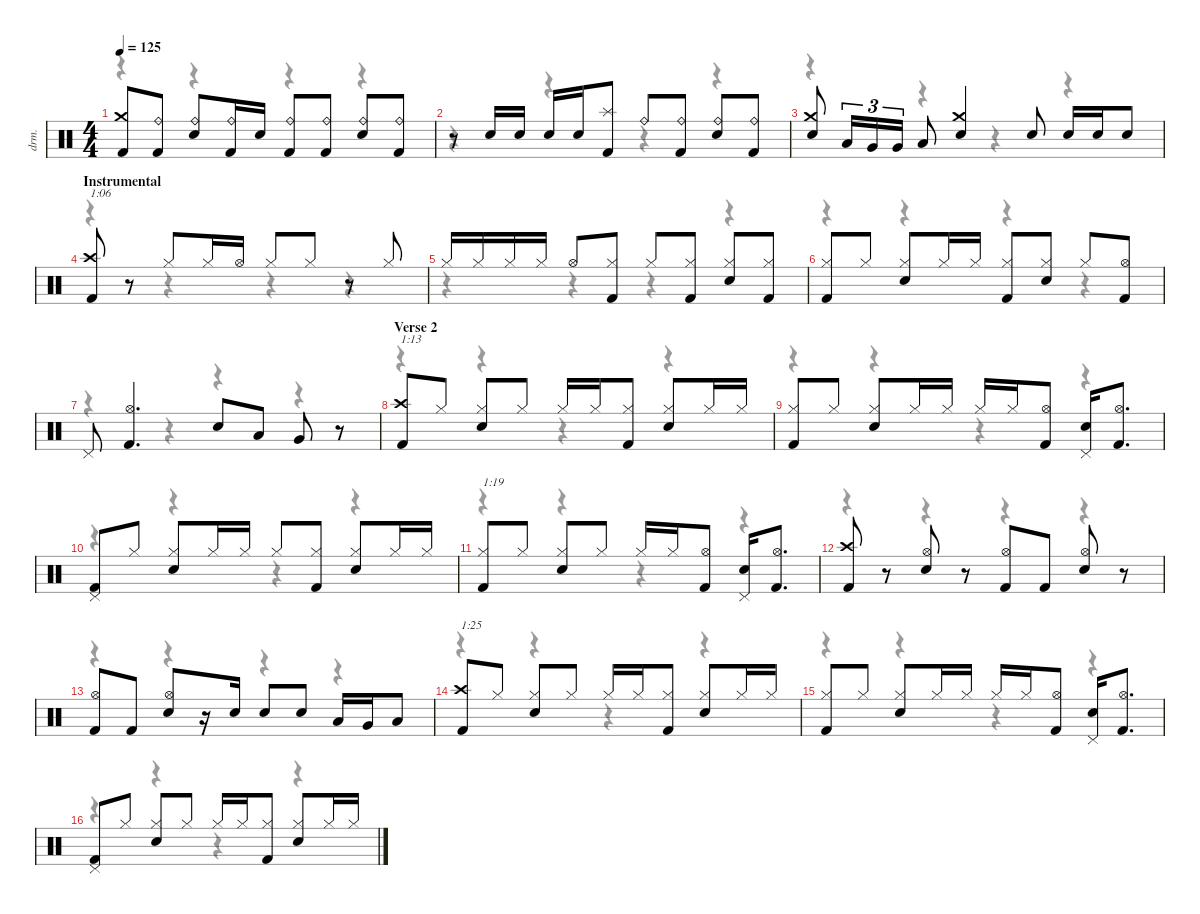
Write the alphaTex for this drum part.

\defaultSystemsLayout 4
\hideDynamics
\bracketExtendMode nobrackets
\otherSystemsTrackNameOrientation horizontal
\track ("Drums" "drm.") {instrument percussion}
\staff {score}
\articulation defaults
\voice
\ts (4 4)
\tempo 125
\clef neutral
\ks c
("Crash medium (hit)" "Kick (hit) 2").8{dy f beam Up} ("Ride (bell)" "Kick (hit) 2").8{beam Up} ("Ride (bell)" "Snare (hit) 2").8{beam Up} ("Ride (bell)" "Kick (hit) 2").16{beam Up} "Snare (hit) 2".16{beam Up} ("Ride (bell)" "Kick (hit) 2").8{beam Up} ("Ride (bell)" "Kick (hit) 2").8{beam Up} ("Ride (bell)" "Snare (hit) 2").8{beam Up} ("Ride (bell)" "Kick (hit) 2").8{beam Up} |
r.8{beam Up} "Snare (hit) 2".16{beam Up} "Snare (hit) 2".16{beam Up} "Snare (hit) 2".16{beam Up} "Snare (hit) 2".16{beam Up} ("Splash (hit)" "Kick (hit) 2").8{beam Up} "Ride (bell)".8{beam Up} ("Ride (bell)" "Kick (hit) 2").8{beam Up} ("Ride (bell)" "Snare (hit) 2").8{beam Up} ("Ride (bell)" "Kick (hit) 2").8{beam Up} |
("Crash medium (hit)" "Snare (hit) 2").8{beam Up} "Low Tom (hit)".16{tu (3 2) beam Up} "Very Low Tom (hit)".16{tu (3 2) beam Up} "Very Low Tom (hit)".16{tu (3 2) beam Up} "Low Floor Tom (hit)".8{beam Up} ("Crash medium (hit)" "Snare (hit) 2").4{beam Up} "Snare (hit) 2".8{beam Up} "Snare (hit) 2".16{beam Up} "Snare (hit) 2".16{beam Up} "Snare (hit) 2".8{beam Up} |
\section ("" "Instrumental")
("Crash high (hit)" "Kick (hit) 2").8{txt "1:06" beam Up} r.8{beam Up} "Hi-Hat (closed)".8{beam Up} "Hi-Hat (closed)".16{beam Up} "Hi-Hat (open)".16{beam Up} "Hi-Hat (closed)".8{beam Up} "Hi-Hat (closed)".8{beam Up} r.8{beam Up} "Hi-Hat (closed)".8{beam Up} |
"Hi-Hat (closed)".16{beam Up} "Hi-Hat (closed)".16{beam Up} "Hi-Hat (closed)".16{beam Up} "Hi-Hat (closed)".16{beam Up} "Hi-Hat (open)".8{beam Up} ("Hi-Hat (closed)" "Kick (hit) 2").8{beam Up} "Hi-Hat (closed)".8{beam Up} ("Hi-Hat (closed)" "Kick (hit) 2").8{beam Up} ("Hi-Hat (closed)" "Snare (hit) 2").8{beam Up} ("Hi-Hat (closed)" "Kick (hit) 2").8{beam Up} |
("Hi-Hat (closed)" "Kick (hit) 2").8{beam Up} "Hi-Hat (closed)".8{beam Up} ("Hi-Hat (closed)" "Snare (hit) 2").8{beam Up} "Hi-Hat (closed)".16{beam Up} "Hi-Hat (closed)".16{beam Up} ("Hi-Hat (closed)" "Kick (hit) 2").8{beam Up} ("Hi-Hat (closed)" "Snare (hit) 2").8{beam Up} "Hi-Hat (closed)".8{beam Up} ("Hi-Hat (open)" "Kick (hit) 2").8{beam Up} |
"Pedal Hi-Hat (hit)".8{beam Up} ("Hi-Hat (open)" "Kick (hit) 2").4{d beam Up} "Snare (hit) 2".8{beam Up} "Low Tom (hit)".8{beam Up} "Very Low Tom (hit)".8{beam Up} r.8{beam Up} |
\section ("" "Verse 2")
("Crash high (hit)" "Kick (hit) 2").8{txt "1:13" beam Up} "Hi-Hat (closed)".8{beam Up} ("Hi-Hat (closed)" "Snare (hit) 2").8{beam Up} "Hi-Hat (closed)".8{beam Up} "Hi-Hat (closed)".16{beam Up} "Hi-Hat (closed)".16{beam Up} ("Hi-Hat (closed)" "Kick (hit) 2").8{beam Up} ("Hi-Hat (closed)" "Snare (hit) 2").8{beam Up} "Hi-Hat (closed)".16{beam Up} "Hi-Hat (closed)".16{beam Up} |
("Hi-Hat (closed)" "Kick (hit) 2").8{beam Up} "Hi-Hat (closed)".8{beam Up} ("Hi-Hat (closed)" "Snare (hit) 2").8{beam Up} "Hi-Hat (closed)".16{beam Up} "Hi-Hat (closed)".16{beam Up} "Hi-Hat (closed)".16{beam Up} "Hi-Hat (closed)".16{beam Up} ("Hi-Hat (open)" "Kick (hit) 2").8{beam Up} ("Pedal Hi-Hat (hit)" "Snare (hit) 2").16{beam Up} ("Hi-Hat (open)" "Kick (hit) 2").8{d beam Up} |
("Pedal Hi-Hat (hit)" "Kick (hit) 2").8{beam Up} "Hi-Hat (closed)".8{beam Up} ("Hi-Hat (closed)" "Snare (hit) 2").8{beam Up} "Hi-Hat (closed)".16{beam Up} "Hi-Hat (closed)".16{beam Up} "Hi-Hat (closed)".8{beam Up} ("Hi-Hat (closed)" "Kick (hit) 2").8{beam Up} ("Hi-Hat (closed)" "Snare (hit) 2").8{beam Up} "Hi-Hat (closed)".16{beam Up} "Hi-Hat (closed)".16{beam Up} |
("Hi-Hat (closed)" "Kick (hit) 2").8{txt "1:19" beam Up} "Hi-Hat (closed)".8{beam Up} ("Hi-Hat (closed)" "Snare (hit) 2").8{beam Up} "Hi-Hat (closed)".8{beam Up} "Hi-Hat (closed)".16{beam Up} "Hi-Hat (closed)".16{beam Up} ("Hi-Hat (open)" "Kick (hit) 2").8{beam Up} ("Pedal Hi-Hat (hit)" "Snare (hit) 2").16{beam Up} ("Hi-Hat (open)" "Kick (hit) 2").8{d beam Up} |
("Crash high (hit)" "Kick (hit) 2").8{beam Up} r.8{beam Up} ("Hi-Hat (open)" "Snare (hit) 2").8{beam Up} r.8{beam Up} ("Hi-Hat (open)" "Kick (hit) 2").8{beam Up} "Kick (hit) 2".8{beam Up} ("Hi-Hat (open)" "Snare (hit) 2").8{beam Up} r.8{beam Up} |
("Hi-Hat (open)" "Kick (hit) 2").8{beam Up} "Kick (hit) 2".8{beam Up} ("Hi-Hat (open)" "Snare (hit) 2").8{beam Up} r.16{beam Up} "Snare (hit) 2".16{beam Up} "Snare (hit) 2".8{beam Up} "Snare (hit) 2".8{beam Up} "Low Tom (hit)".16{beam Up} "Very Low Tom (hit)".16{beam Up} "Low Floor Tom (hit)".8{beam Up} |
("Crash high (hit)" "Kick (hit) 2").8{txt "1:25" beam Up} "Hi-Hat (closed)".8{beam Up} ("Hi-Hat (closed)" "Snare (hit) 2").8{beam Up} "Hi-Hat (closed)".8{beam Up} "Hi-Hat (closed)".16{beam Up} "Hi-Hat (closed)".16{beam Up} ("Hi-Hat (closed)" "Kick (hit) 2").8{beam Up} ("Hi-Hat (closed)" "Snare (hit) 2").8{beam Up} "Hi-Hat (closed)".16{beam Up} "Hi-Hat (closed)".16{beam Up} |
("Hi-Hat (closed)" "Kick (hit) 2").8{beam Up} "Hi-Hat (closed)".8{beam Up} ("Hi-Hat (closed)" "Snare (hit) 2").8{beam Up} "Hi-Hat (closed)".16{beam Up} "Hi-Hat (closed)".16{beam Up} "Hi-Hat (closed)".16{beam Up} "Hi-Hat (closed)".16{beam Up} ("Hi-Hat (open)" "Kick (hit) 2").8{beam Up} ("Pedal Hi-Hat (hit)" "Snare (hit) 2").16{beam Up} ("Hi-Hat (open)" "Kick (hit) 2").8{d beam Up} |
("Pedal Hi-Hat (hit)" "Kick (hit) 2").8{beam Up} "Hi-Hat (closed)".8{beam Up} ("Hi-Hat (closed)" "Snare (hit) 2").8{beam Up} "Hi-Hat (closed)".8{beam Up} "Hi-Hat (closed)".16{beam Up} "Hi-Hat (closed)".16{beam Up} ("Hi-Hat (closed)" "Kick (hit) 2").8{beam Up} ("Hi-Hat (closed)" "Snare (hit) 2").8{beam Up} "Hi-Hat (closed)".16{beam Up} "Hi-Hat (closed)".16{beam Up}
\voice
\clef neutral
\ottava regular
\simile none
\ks c
r.4{dy mf beam Down} r.4{beam Down} r.4{beam Down} r.4{beam Down} |
r.4{beam Down} r.4{beam Down} r.4{beam Down} r.4{beam Down} |
r.4{beam Down} r.4{beam Down} r.4{beam Down} r.4{beam Down} |
r.4{beam Down} r.4{beam Down} r.4{beam Down} r.4{beam Down} |
r.4{beam Down} r.4{beam Down} r.4{beam Down} r.4{beam Down} |
r.4{beam Down} r.4{beam Down} r.4{beam Down} r.4{beam Down} |
r.4{beam Down} r.4{beam Down} r.4{beam Down} r.4{beam Down} |
r.4{beam Down} r.4{beam Down} r.4{beam Down} r.4{beam Down} |
r.4{beam Down} r.4{beam Down} r.4{beam Down} r.4{beam Down} |
r.4{beam Down} r.4{beam Down} r.4{beam Down} r.4{beam Down} |
r.4{beam Down} r.4{beam Down} r.4{beam Down} r.4{beam Down} |
r.4{beam Down} r.4{beam Down} r.4{beam Down} r.4{beam Down} |
r.4{beam Down} r.4{beam Down} r.4{beam Down} r.4{beam Down} |
r.4{beam Down} r.4{beam Down} r.4{beam Down} r.4{beam Down} |
r.4{beam Down} r.4{beam Down} r.4{beam Down} r.4{beam Down} |
r.4{beam Down} r.4{beam Down} r.4{beam Down} r.4{beam Down}
